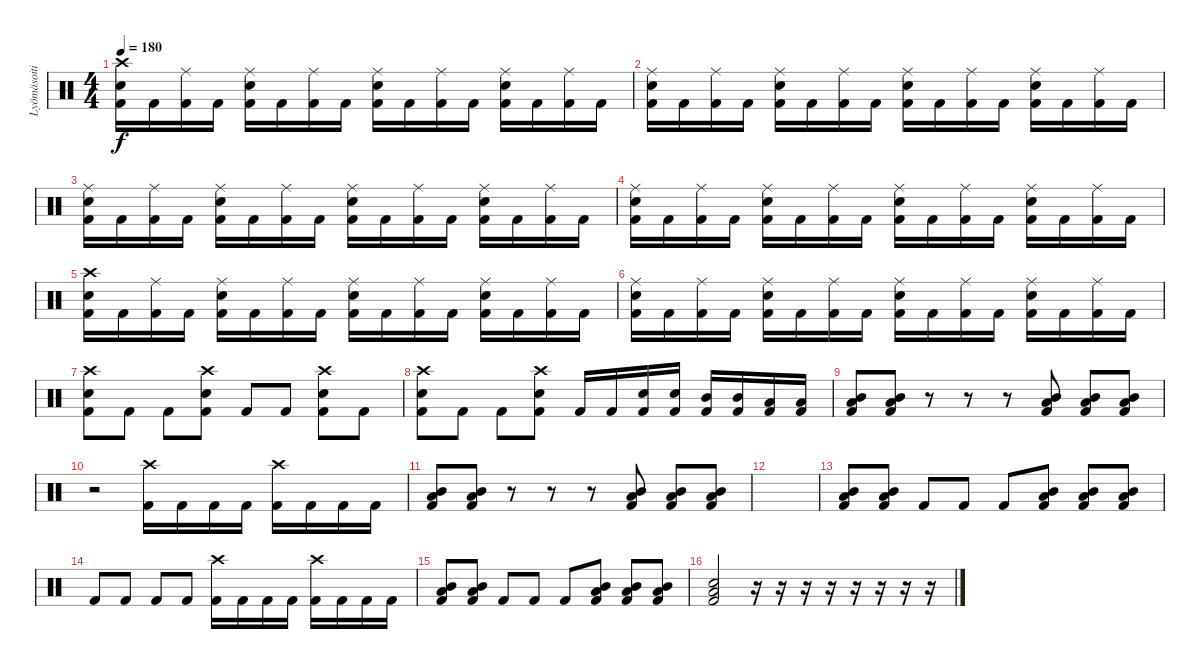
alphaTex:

\track ("Lyömäsoitin" "Lyömäsoiti") {instrument percussion}
\staff {score}
\articulation defaults
\ts (4 4)
\tempo 180
\clef neutral
\ks c
("Kick (hit) 2" "Electric Snare (hit)" "Crash high (hit)").16{dy f} "Kick (hit) 2".16 ("Kick (hit) 2" "Ride (middle)").16 "Kick (hit) 2".16 ("Kick (hit) 2" "Electric Snare (hit)" "Ride (middle)").16 "Kick (hit) 2".16 ("Kick (hit) 2" "Ride (middle)").16 "Kick (hit) 2".16 ("Kick (hit) 2" "Electric Snare (hit)" "Ride (middle)").16 "Kick (hit) 2".16 ("Kick (hit) 2" "Ride (middle)").16 "Kick (hit) 2".16 ("Kick (hit) 2" "Electric Snare (hit)" "Ride (middle)").16 "Kick (hit) 2".16 ("Kick (hit) 2" "Ride (middle)").16 "Kick (hit) 2".16 |
("Kick (hit) 2" "Electric Snare (hit)" "Ride (middle)").16 "Kick (hit) 2".16 ("Kick (hit) 2" "Ride (middle)").16 "Kick (hit) 2".16 ("Kick (hit) 2" "Electric Snare (hit)" "Ride (middle)").16 "Kick (hit) 2".16 ("Kick (hit) 2" "Ride (middle)").16 "Kick (hit) 2".16 ("Kick (hit) 2" "Electric Snare (hit)" "Ride (middle)").16 "Kick (hit) 2".16 ("Kick (hit) 2" "Ride (middle)").16 "Kick (hit) 2".16 ("Kick (hit) 2" "Electric Snare (hit)" "Ride (middle)").16 "Kick (hit) 2".16 ("Kick (hit) 2" "Ride (middle)").16 "Kick (hit) 2".16 |
("Kick (hit) 2" "Electric Snare (hit)" "Ride (middle)").16 "Kick (hit) 2".16 ("Kick (hit) 2" "Ride (middle)").16 "Kick (hit) 2".16 ("Kick (hit) 2" "Electric Snare (hit)" "Ride (middle)").16 "Kick (hit) 2".16 ("Kick (hit) 2" "Ride (middle)").16 "Kick (hit) 2".16 ("Kick (hit) 2" "Electric Snare (hit)" "Ride (middle)").16 "Kick (hit) 2".16 ("Kick (hit) 2" "Ride (middle)").16 "Kick (hit) 2".16 ("Kick (hit) 2" "Electric Snare (hit)" "Ride (middle)").16 "Kick (hit) 2".16 ("Kick (hit) 2" "Ride (middle)").16 "Kick (hit) 2".16 |
("Kick (hit) 2" "Electric Snare (hit)" "Ride (middle)").16 "Kick (hit) 2".16 ("Kick (hit) 2" "Ride (middle)").16 "Kick (hit) 2".16 ("Kick (hit) 2" "Electric Snare (hit)" "Ride (middle)").16 "Kick (hit) 2".16 ("Kick (hit) 2" "Ride (middle)").16 "Kick (hit) 2".16 ("Kick (hit) 2" "Electric Snare (hit)" "Ride (middle)").16 "Kick (hit) 2".16 ("Kick (hit) 2" "Ride (middle)").16 "Kick (hit) 2".16 ("Kick (hit) 2" "Electric Snare (hit)" "Ride (middle)").16 "Kick (hit) 2".16 ("Kick (hit) 2" "Ride (middle)").16 "Kick (hit) 2".16 |
("Kick (hit) 2" "Electric Snare (hit)" "Crash high (hit)").16 "Kick (hit) 2".16 ("Kick (hit) 2" "Ride (middle)").16 "Kick (hit) 2".16 ("Kick (hit) 2" "Electric Snare (hit)" "Ride (middle)").16 "Kick (hit) 2".16 ("Kick (hit) 2" "Ride (middle)").16 "Kick (hit) 2".16 ("Kick (hit) 2" "Electric Snare (hit)" "Ride (middle)").16 "Kick (hit) 2".16 ("Kick (hit) 2" "Ride (middle)").16 "Kick (hit) 2".16 ("Kick (hit) 2" "Electric Snare (hit)" "Ride (middle)").16 "Kick (hit) 2".16 ("Kick (hit) 2" "Ride (middle)").16 "Kick (hit) 2".16 |
("Kick (hit) 2" "Electric Snare (hit)" "Ride (middle)").16 "Kick (hit) 2".16 ("Kick (hit) 2" "Ride (middle)").16 "Kick (hit) 2".16 ("Kick (hit) 2" "Electric Snare (hit)" "Ride (middle)").16 "Kick (hit) 2".16 ("Kick (hit) 2" "Ride (middle)").16 "Kick (hit) 2".16 ("Kick (hit) 2" "Electric Snare (hit)" "Ride (middle)").16 "Kick (hit) 2".16 ("Kick (hit) 2" "Ride (middle)").16 "Kick (hit) 2".16 ("Kick (hit) 2" "Electric Snare (hit)" "Ride (middle)").16 "Kick (hit) 2".16 ("Kick (hit) 2" "Ride (middle)").16 "Kick (hit) 2".16 |
("Kick (hit) 2" "Electric Snare (hit)" "Crash high (hit)").8 "Kick (hit) 2".8 "Kick (hit) 2".8 ("Kick (hit) 2" "Electric Snare (hit)" "Crash high (hit)").8 "Kick (hit) 2".8 "Kick (hit) 2".8 ("Kick (hit) 2" "Electric Snare (hit)" "Crash high (hit)").8 "Kick (hit) 2".8 |
("Kick (hit) 2" "Electric Snare (hit)" "Crash high (hit)").8 "Kick (hit) 2".8 "Kick (hit) 2".8 ("Kick (hit) 2" "Electric Snare (hit)" "Crash high (hit)").8 "Kick (hit) 2".16 "Kick (hit) 2".16 ("Kick (hit) 2" "Electric Snare (hit)").16 ("Kick (hit) 2" "Electric Snare (hit)").16 ("Kick (hit) 2" "Mid Tom (hit)").16 ("Kick (hit) 2" "Mid Tom (hit)").16 ("Kick (hit) 2" "Low Tom (hit)").16 ("Kick (hit) 2" "Low Tom (hit)").16 |
("Kick (hit) 2" "Mid Tom (hit)" "Low Tom (hit)").8 ("Kick (hit) 2" "Mid Tom (hit)" "Low Tom (hit)").8 r.8 r.8 r.8 ("Kick (hit) 2" "Mid Tom (hit)" "Low Tom (hit)").8 ("Kick (hit) 2" "Mid Tom (hit)" "Low Tom (hit)").8 ("Kick (hit) 2" "Mid Tom (hit)" "Low Tom (hit)").8 |
r.2 ("Kick (hit) 2" "Crash high (hit)").16 "Kick (hit) 2".16 "Kick (hit) 2".16 "Kick (hit) 2".16 ("Kick (hit) 2" "Crash high (hit)").16 "Kick (hit) 2".16 "Kick (hit) 2".16 "Kick (hit) 2".16 |
("Kick (hit) 2" "Mid Tom (hit)" "Low Tom (hit)").8 ("Kick (hit) 2" "Mid Tom (hit)" "Low Tom (hit)").8 r.8 r.8 r.8 ("Kick (hit) 2" "Mid Tom (hit)" "Low Tom (hit)").8 ("Kick (hit) 2" "Mid Tom (hit)" "Low Tom (hit)").8 ("Kick (hit) 2" "Mid Tom (hit)" "Low Tom (hit)").8 |
|
("Kick (hit) 2" "Mid Tom (hit)" "Low Tom (hit)").8 ("Kick (hit) 2" "Mid Tom (hit)" "Low Tom (hit)").8 "Kick (hit) 2".8 "Kick (hit) 2".8 "Kick (hit) 2".8 ("Kick (hit) 2" "Mid Tom (hit)" "Low Tom (hit)").8 ("Kick (hit) 2" "Mid Tom (hit)" "Low Tom (hit)").8 ("Kick (hit) 2" "Mid Tom (hit)" "Low Tom (hit)").8 |
"Kick (hit) 2".8 "Kick (hit) 2".8 "Kick (hit) 2".8 "Kick (hit) 2".8 ("Kick (hit) 2" "Crash high (hit)").16 "Kick (hit) 2".16 "Kick (hit) 2".16 "Kick (hit) 2".16 ("Kick (hit) 2" "Crash high (hit)").16 "Kick (hit) 2".16 "Kick (hit) 2".16 "Kick (hit) 2".16 |
("Kick (hit) 2" "Mid Tom (hit)" "Low Tom (hit)").8 ("Kick (hit) 2" "Mid Tom (hit)" "Low Tom (hit)").8 "Kick (hit) 2".8 "Kick (hit) 2".8 "Kick (hit) 2".8 ("Kick (hit) 2" "Mid Tom (hit)" "Low Tom (hit)").8 ("Kick (hit) 2" "Mid Tom (hit)" "Low Tom (hit)").8 ("Kick (hit) 2" "Mid Tom (hit)" "Low Tom (hit)").8 |
("Kick (hit) 2" "Electric Snare (hit)" "Low Tom (hit)").2 r.16 r.16 r.16 r.16 r.16 r.16 r.16 r.16
